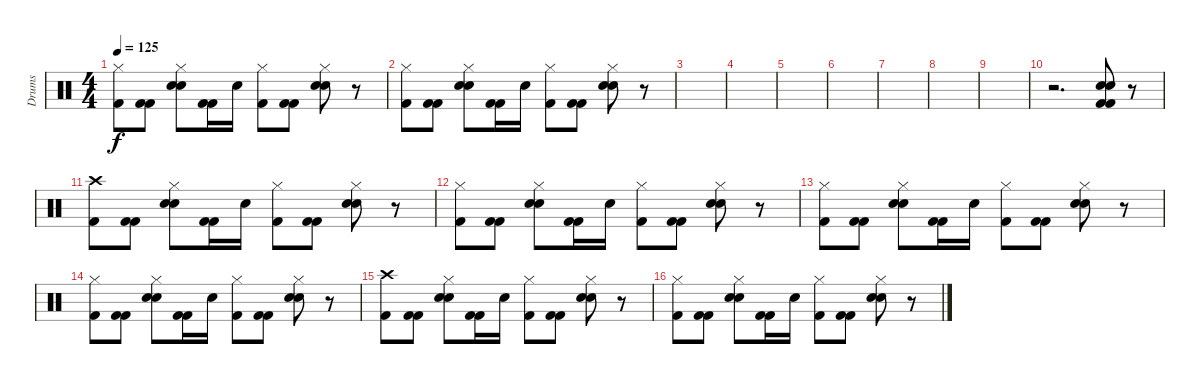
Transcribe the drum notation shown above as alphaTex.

\track ("Drums" "Drums") {instrument percussion}
\staff {score}
\articulation defaults
\ts (4 4)
\tempo 125
\clef neutral
\ks c
("Hi-Hat (closed)" "Kick (hit) 2").8{dy f} ("Kick (hit) 2" "Kick (hit) 2").8 ("Hi-Hat (closed)" "Hand Clap (hit)" "Snare (hit) 2").8 ("Kick (hit) 2" "Kick (hit) 2").16 "Snare (hit) 2".16 ("Hi-Hat (closed)" "Kick (hit) 2").8 ("Kick (hit) 2" "Kick (hit) 2").8 ("Hi-Hat (closed)" "Hand Clap (hit)" "Snare (hit) 2").8 r.8 |
("Hi-Hat (closed)" "Kick (hit) 2").8 ("Kick (hit) 2" "Kick (hit) 2").8 ("Hi-Hat (closed)" "Hand Clap (hit)" "Snare (hit) 2").8 ("Kick (hit) 2" "Kick (hit) 2").16 "Snare (hit) 2".16 ("Hi-Hat (closed)" "Kick (hit) 2").8 ("Kick (hit) 2" "Kick (hit) 2").8 ("Hi-Hat (closed)" "Hand Clap (hit)" "Snare (hit) 2").8 r.8 |
|
|
|
|
|
|
|
r.2{d} ("Hand Clap (hit)" "Snare (hit) 2" "Kick (hit) 2" "Kick (hit) 2").8 r.8 |
("Crash high (hit)" "Kick (hit) 2").8 ("Kick (hit) 2" "Kick (hit) 2").8 ("Hi-Hat (closed)" "Hand Clap (hit)" "Snare (hit) 2").8 ("Kick (hit) 2" "Kick (hit) 2").16 "Snare (hit) 2".16 ("Hi-Hat (closed)" "Kick (hit) 2").8 ("Kick (hit) 2" "Kick (hit) 2").8 ("Hi-Hat (closed)" "Hand Clap (hit)" "Snare (hit) 2").8 r.8 |
("Hi-Hat (closed)" "Kick (hit) 2").8 ("Kick (hit) 2" "Kick (hit) 2").8 ("Hi-Hat (closed)" "Hand Clap (hit)" "Snare (hit) 2").8 ("Kick (hit) 2" "Kick (hit) 2").16 "Snare (hit) 2".16 ("Hi-Hat (closed)" "Kick (hit) 2").8 ("Kick (hit) 2" "Kick (hit) 2").8 ("Hi-Hat (closed)" "Hand Clap (hit)" "Snare (hit) 2").8 r.8 |
("Hi-Hat (closed)" "Kick (hit) 2").8 ("Kick (hit) 2" "Kick (hit) 2").8 ("Hi-Hat (closed)" "Hand Clap (hit)" "Snare (hit) 2").8 ("Kick (hit) 2" "Kick (hit) 2").16 "Snare (hit) 2".16 ("Hi-Hat (closed)" "Kick (hit) 2").8 ("Kick (hit) 2" "Kick (hit) 2").8 ("Hi-Hat (closed)" "Hand Clap (hit)" "Snare (hit) 2").8 r.8 |
("Hi-Hat (closed)" "Kick (hit) 2").8 ("Kick (hit) 2" "Kick (hit) 2").8 ("Hi-Hat (closed)" "Hand Clap (hit)" "Snare (hit) 2").8 ("Kick (hit) 2" "Kick (hit) 2").16 "Snare (hit) 2".16 ("Hi-Hat (closed)" "Kick (hit) 2").8 ("Kick (hit) 2" "Kick (hit) 2").8 ("Hi-Hat (closed)" "Hand Clap (hit)" "Snare (hit) 2").8 r.8 |
("Crash high (hit)" "Kick (hit) 2").8 ("Kick (hit) 2" "Kick (hit) 2").8 ("Hi-Hat (closed)" "Hand Clap (hit)" "Snare (hit) 2").8 ("Kick (hit) 2" "Kick (hit) 2").16 "Snare (hit) 2".16 ("Hi-Hat (closed)" "Kick (hit) 2").8 ("Kick (hit) 2" "Kick (hit) 2").8 ("Hi-Hat (closed)" "Hand Clap (hit)" "Snare (hit) 2").8 r.8 |
("Hi-Hat (closed)" "Kick (hit) 2").8 ("Kick (hit) 2" "Kick (hit) 2").8 ("Hi-Hat (closed)" "Hand Clap (hit)" "Snare (hit) 2").8 ("Kick (hit) 2" "Kick (hit) 2").16 "Snare (hit) 2".16 ("Hi-Hat (closed)" "Kick (hit) 2").8 ("Kick (hit) 2" "Kick (hit) 2").8 ("Hi-Hat (closed)" "Hand Clap (hit)" "Snare (hit) 2").8 r.8
